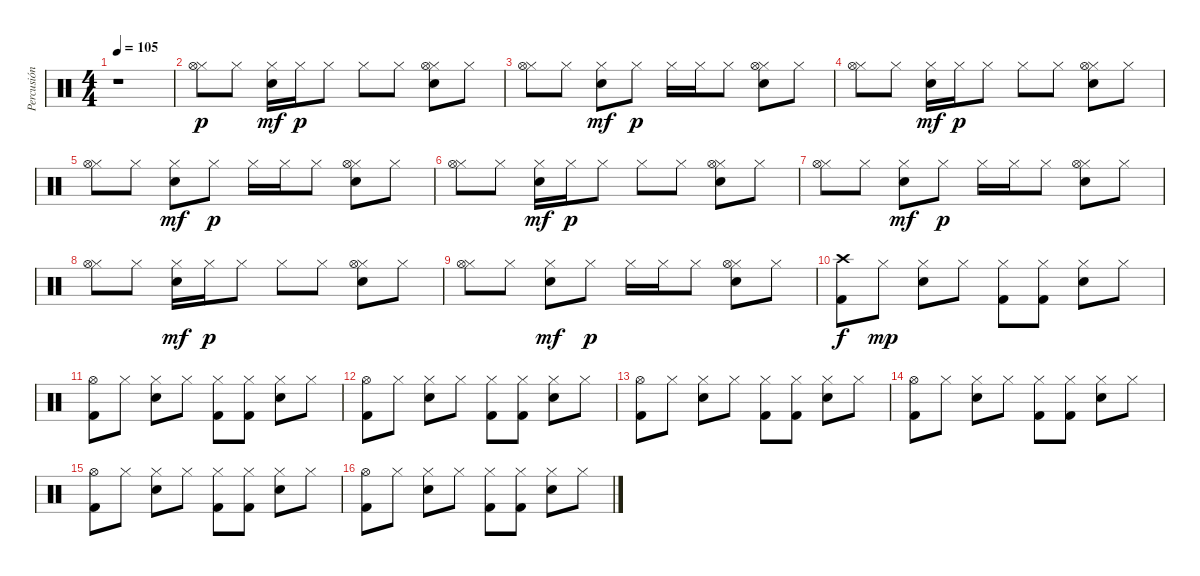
\track ("Percusión" "Percusión") {instrument percussion}
\staff {score}
\articulation defaults
\ts (4 4)
\tempo 105
\clef neutral
\ks c
r.1{dy p} |
("Hi-Hat (closed)" "Hi-Hat (open)").8 "Hi-Hat (closed)".8 ("Hi-Hat (closed)" "Electric Snare (hit)").16{dy mf} "Hi-Hat (closed)".16{dy p} "Hi-Hat (closed)".8 "Hi-Hat (closed)".8 "Hi-Hat (closed)".8 ("Hi-Hat (closed)" "Electric Snare (hit)" "Hi-Hat (open)").8 "Hi-Hat (closed)".8 |
("Hi-Hat (closed)" "Hi-Hat (open)").8 "Hi-Hat (closed)".8 ("Hi-Hat (closed)" "Electric Snare (hit)").8{dy mf} "Hi-Hat (closed)".8{dy p} "Hi-Hat (closed)".16 "Hi-Hat (closed)".16 "Hi-Hat (closed)".8 ("Hi-Hat (closed)" "Electric Snare (hit)" "Hi-Hat (open)").8 "Hi-Hat (closed)".8 |
("Hi-Hat (closed)" "Hi-Hat (open)").8 "Hi-Hat (closed)".8 ("Hi-Hat (closed)" "Electric Snare (hit)").16{dy mf} "Hi-Hat (closed)".16{dy p} "Hi-Hat (closed)".8 "Hi-Hat (closed)".8 "Hi-Hat (closed)".8 ("Hi-Hat (closed)" "Electric Snare (hit)" "Hi-Hat (open)").8 "Hi-Hat (closed)".8 |
("Hi-Hat (closed)" "Hi-Hat (open)").8 "Hi-Hat (closed)".8 ("Hi-Hat (closed)" "Electric Snare (hit)").8{dy mf} "Hi-Hat (closed)".8{dy p} "Hi-Hat (closed)".16 "Hi-Hat (closed)".16 "Hi-Hat (closed)".8 ("Hi-Hat (closed)" "Electric Snare (hit)" "Hi-Hat (open)").8 "Hi-Hat (closed)".8 |
("Hi-Hat (closed)" "Hi-Hat (open)").8 "Hi-Hat (closed)".8 ("Hi-Hat (closed)" "Electric Snare (hit)").16{dy mf} "Hi-Hat (closed)".16{dy p} "Hi-Hat (closed)".8 "Hi-Hat (closed)".8 "Hi-Hat (closed)".8 ("Hi-Hat (closed)" "Electric Snare (hit)" "Hi-Hat (open)").8 "Hi-Hat (closed)".8 |
("Hi-Hat (closed)" "Hi-Hat (open)").8 "Hi-Hat (closed)".8 ("Hi-Hat (closed)" "Electric Snare (hit)").8{dy mf} "Hi-Hat (closed)".8{dy p} "Hi-Hat (closed)".16 "Hi-Hat (closed)".16 "Hi-Hat (closed)".8 ("Hi-Hat (closed)" "Electric Snare (hit)" "Hi-Hat (open)").8 "Hi-Hat (closed)".8 |
("Hi-Hat (closed)" "Hi-Hat (open)").8 "Hi-Hat (closed)".8 ("Hi-Hat (closed)" "Electric Snare (hit)").16{dy mf} "Hi-Hat (closed)".16{dy p} "Hi-Hat (closed)".8 "Hi-Hat (closed)".8 "Hi-Hat (closed)".8 ("Hi-Hat (closed)" "Electric Snare (hit)" "Hi-Hat (open)").8 "Hi-Hat (closed)".8 |
("Hi-Hat (closed)" "Hi-Hat (open)").8 "Hi-Hat (closed)".8 ("Hi-Hat (closed)" "Electric Snare (hit)").8{dy mf} "Hi-Hat (closed)".8{dy p} "Hi-Hat (closed)".16 "Hi-Hat (closed)".16 "Hi-Hat (closed)".8 ("Hi-Hat (closed)" "Electric Snare (hit)" "Hi-Hat (open)").8 "Hi-Hat (closed)".8 |
("Crash high (hit)" "Kick (hit) 2").8{dy f} "Hi-Hat (closed)".8{dy mp} ("Hi-Hat (closed)" "Snare (hit) 2").8 "Hi-Hat (closed)".8 ("Hi-Hat (closed)" "Kick (hit) 2").8 ("Hi-Hat (closed)" "Kick (hit) 2").8 ("Hi-Hat (closed)" "Snare (hit) 2").8 "Hi-Hat (closed)".8 |
("Hi-Hat (open)" "Kick (hit) 2").8 "Hi-Hat (closed)".8 ("Hi-Hat (closed)" "Snare (hit) 2").8 "Hi-Hat (closed)".8 ("Hi-Hat (closed)" "Kick (hit) 2").8 ("Hi-Hat (closed)" "Kick (hit) 2").8 ("Hi-Hat (closed)" "Snare (hit) 2").8 "Hi-Hat (closed)".8 |
("Hi-Hat (open)" "Kick (hit) 2").8 "Hi-Hat (closed)".8 ("Hi-Hat (closed)" "Snare (hit) 2").8 "Hi-Hat (closed)".8 ("Hi-Hat (closed)" "Kick (hit) 2").8 ("Hi-Hat (closed)" "Kick (hit) 2").8 ("Hi-Hat (closed)" "Snare (hit) 2").8 "Hi-Hat (closed)".8 |
("Hi-Hat (open)" "Kick (hit) 2").8 "Hi-Hat (closed)".8 ("Hi-Hat (closed)" "Snare (hit) 2").8 "Hi-Hat (closed)".8 ("Hi-Hat (closed)" "Kick (hit) 2").8 ("Hi-Hat (closed)" "Kick (hit) 2").8 ("Hi-Hat (closed)" "Snare (hit) 2").8 "Hi-Hat (closed)".8 |
("Hi-Hat (open)" "Kick (hit) 2").8 "Hi-Hat (closed)".8 ("Hi-Hat (closed)" "Snare (hit) 2").8 "Hi-Hat (closed)".8 ("Hi-Hat (closed)" "Kick (hit) 2").8 ("Hi-Hat (closed)" "Kick (hit) 2").8 ("Hi-Hat (closed)" "Snare (hit) 2").8 "Hi-Hat (closed)".8 |
("Hi-Hat (open)" "Kick (hit) 2").8 "Hi-Hat (closed)".8 ("Hi-Hat (closed)" "Snare (hit) 2").8 "Hi-Hat (closed)".8 ("Hi-Hat (closed)" "Kick (hit) 2").8 ("Hi-Hat (closed)" "Kick (hit) 2").8 ("Hi-Hat (closed)" "Snare (hit) 2").8 "Hi-Hat (closed)".8 |
("Hi-Hat (open)" "Kick (hit) 2").8 "Hi-Hat (closed)".8 ("Hi-Hat (closed)" "Snare (hit) 2").8 "Hi-Hat (closed)".8 ("Hi-Hat (closed)" "Kick (hit) 2").8 ("Hi-Hat (closed)" "Kick (hit) 2").8 ("Hi-Hat (closed)" "Snare (hit) 2").8 "Hi-Hat (closed)".8
